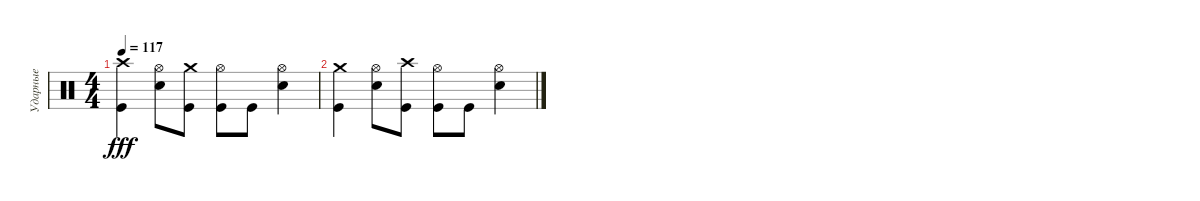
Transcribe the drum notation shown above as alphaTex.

\track ("Ударные" "Ударные") {instrument percussion}
\staff {score}
\articulation defaults
\ts (4 4)
\tempo 117
\clef neutral
\ks c
("Crash high (hit)" "Kick (hit)").4{dy fff} ("Hi-Hat (open)" "Electric Snare (hit)").8 ("Crash medium (hit)" "Kick (hit)").8 ("Hi-Hat (open)" "Kick (hit)").8 "Kick (hit)".8 ("Hi-Hat (open)" "Electric Snare (hit)").4 |
("Crash medium (hit)" "Kick (hit)").4 ("Hi-Hat (open)" "Electric Snare (hit)").8 ("Crash high (hit)" "Kick (hit)").8 ("Hi-Hat (open)" "Kick (hit)").8 "Kick (hit)".8 ("Hi-Hat (open)" "Electric Snare (hit)").4
